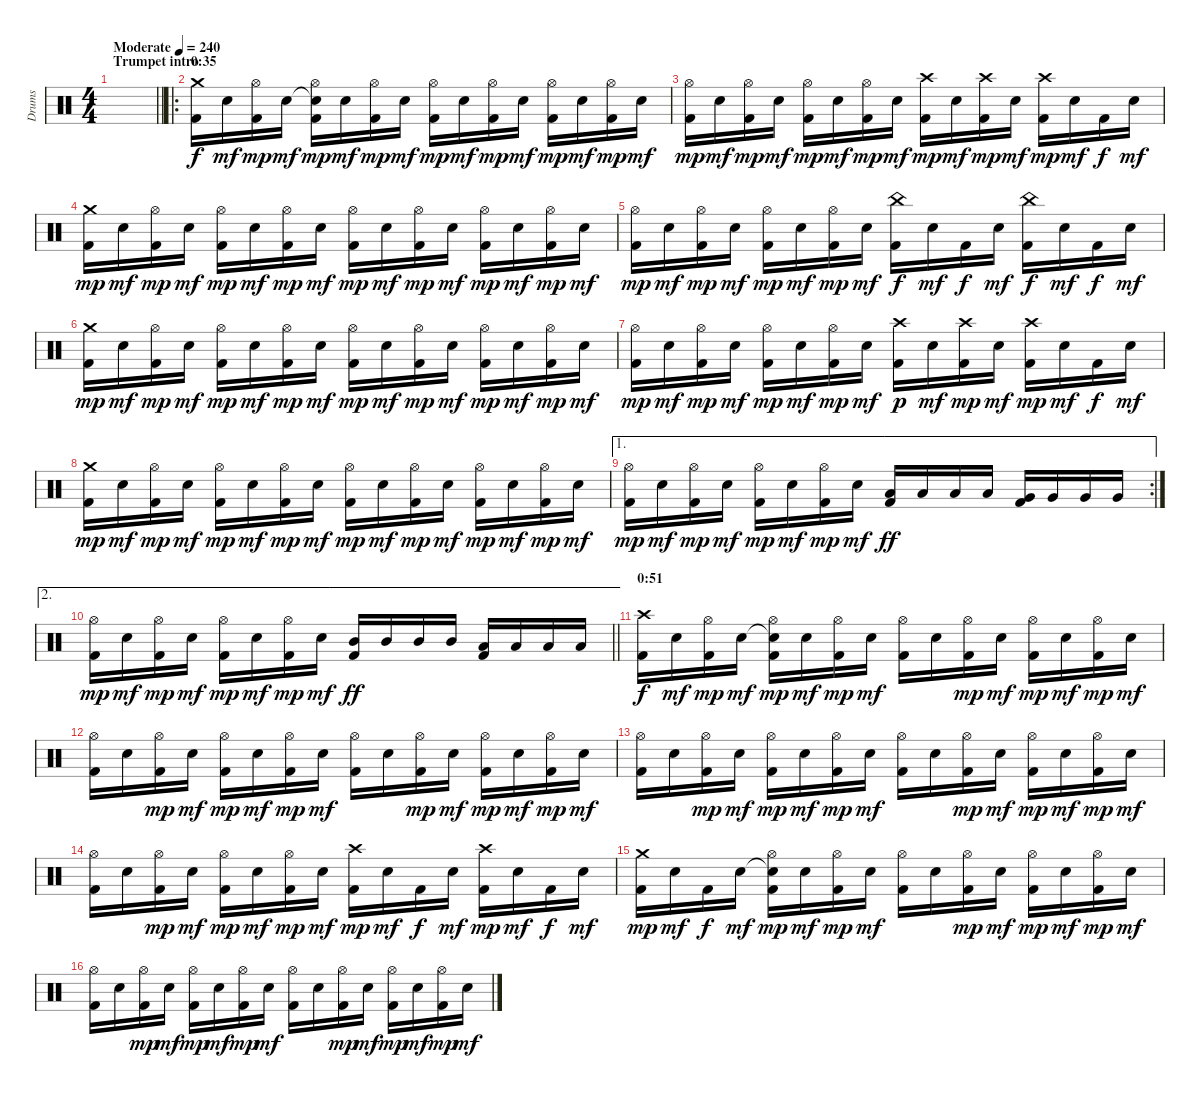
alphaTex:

\track ("Drums" "Drums") {instrument percussion}
\staff {score}
\articulation defaults
\ts (4 4)
\section ("" "Trumpet intro")
\tempo (240 "Moderate")
\clef neutral
\barLineRight lightlight
\ks c
|
\ro
\section ("" "0:35")
("Crash medium (hit)" "Kick (hit) 2").16 "Electric Snare (hit)".16{dy mf} ("Hi-Hat (open)" "Kick (hit) 2").16{dy mp} "Electric Snare (hit)".16{dy mf} ("Snare (hit)"{t} "Hi-Hat (open)" "Kick (hit) 2").16{dy mp} "Electric Snare (hit)".16{dy mf} ("Hi-Hat (open)" "Kick (hit) 2").16{dy mp} "Electric Snare (hit)".16{dy mf} ("Hi-Hat (open)" "Kick (hit) 2").16{dy mp} "Electric Snare (hit)".16{dy mf} ("Hi-Hat (open)" "Kick (hit) 2").16{dy mp} "Electric Snare (hit)".16{dy mf} ("Hi-Hat (open)" "Kick (hit) 2").16{dy mp} "Electric Snare (hit)".16{dy mf} ("Hi-Hat (open)" "Kick (hit) 2").16{dy mp} "Electric Snare (hit)".16{dy mf} |
("Hi-Hat (open)" "Kick (hit) 2").16{dy mp} "Electric Snare (hit)".16{dy mf} ("Hi-Hat (open)" "Kick (hit) 2").16{dy mp} "Electric Snare (hit)".16{dy mf} ("Hi-Hat (open)" "Kick (hit) 2").16{dy mp} "Electric Snare (hit)".16{dy mf} ("Hi-Hat (open)" "Kick (hit) 2").16{dy mp} "Electric Snare (hit)".16{dy mf} ("Crash high (hit)" "Kick (hit) 2").16{dy mp} "Electric Snare (hit)".16{dy mf} ("Crash high (hit)" "Kick (hit) 2").16{dy mp} "Electric Snare (hit)".16{dy mf} ("Crash high (hit)" "Kick (hit) 2").16{dy mp} "Electric Snare (hit)".16{dy mf} "Kick (hit) 2".16{dy f} "Electric Snare (hit)".16{dy mf} |
("Crash medium (hit)" "Kick (hit) 2").16{dy mp} "Electric Snare (hit)".16{dy mf} ("Hi-Hat (open)" "Kick (hit) 2").16{dy mp} "Electric Snare (hit)".16{dy mf} ("Hi-Hat (open)" "Kick (hit) 2").16{dy mp} "Electric Snare (hit)".16{dy mf} ("Hi-Hat (open)" "Kick (hit) 2").16{dy mp} "Electric Snare (hit)".16{dy mf} ("Hi-Hat (open)" "Kick (hit) 2").16{dy mp} "Electric Snare (hit)".16{dy mf} ("Hi-Hat (open)" "Kick (hit) 2").16{dy mp} "Electric Snare (hit)".16{dy mf} ("Hi-Hat (open)" "Kick (hit) 2").16{dy mp} "Electric Snare (hit)".16{dy mf} ("Hi-Hat (open)" "Kick (hit) 2").16{dy mp} "Electric Snare (hit)".16{dy mf} |
("Hi-Hat (open)" "Kick (hit) 2").16{dy mp} "Electric Snare (hit)".16{dy mf} ("Hi-Hat (open)" "Kick (hit) 2").16{dy mp} "Electric Snare (hit)".16{dy mf} ("Hi-Hat (open)" "Kick (hit) 2").16{dy mp} "Electric Snare (hit)".16{dy mf} ("Hi-Hat (open)" "Kick (hit) 2").16{dy mp} "Electric Snare (hit)".16{dy mf} ("China (hit)" "Kick (hit) 2").16{dy f} "Electric Snare (hit)".16{dy mf} "Kick (hit) 2".16{dy f} "Electric Snare (hit)".16{dy mf} ("China (hit)" "Kick (hit) 2").16{dy f} "Electric Snare (hit)".16{dy mf} "Kick (hit) 2".16{dy f} "Electric Snare (hit)".16{dy mf} |
("Crash medium (hit)" "Kick (hit) 2").16{dy mp} "Electric Snare (hit)".16{dy mf} ("Hi-Hat (open)" "Kick (hit) 2").16{dy mp} "Electric Snare (hit)".16{dy mf} ("Hi-Hat (open)" "Kick (hit) 2").16{dy mp} "Electric Snare (hit)".16{dy mf} ("Hi-Hat (open)" "Kick (hit) 2").16{dy mp} "Electric Snare (hit)".16{dy mf} ("Hi-Hat (open)" "Kick (hit) 2").16{dy mp} "Electric Snare (hit)".16{dy mf} ("Hi-Hat (open)" "Kick (hit) 2").16{dy mp} "Electric Snare (hit)".16{dy mf} ("Hi-Hat (open)" "Kick (hit) 2").16{dy mp} "Electric Snare (hit)".16{dy mf} ("Hi-Hat (open)" "Kick (hit) 2").16{dy mp} "Electric Snare (hit)".16{dy mf} |
("Hi-Hat (open)" "Kick (hit) 2").16{dy mp} "Electric Snare (hit)".16{dy mf} ("Hi-Hat (open)" "Kick (hit) 2").16{dy mp} "Electric Snare (hit)".16{dy mf} ("Hi-Hat (open)" "Kick (hit) 2").16{dy mp} "Electric Snare (hit)".16{dy mf} ("Hi-Hat (open)" "Kick (hit) 2").16{dy mp} "Electric Snare (hit)".16{dy mf} ("Crash high (hit)" "Kick (hit) 2").16{dy p} "Electric Snare (hit)".16{dy mf} ("Crash high (hit)" "Kick (hit) 2").16{dy mp} "Electric Snare (hit)".16{dy mf} ("Crash high (hit)" "Kick (hit) 2").16{dy mp} "Electric Snare (hit)".16{dy mf} "Kick (hit) 2".16{dy f} "Electric Snare (hit)".16{dy mf} |
("Crash medium (hit)" "Kick (hit) 2").16{dy mp} "Electric Snare (hit)".16{dy mf} ("Hi-Hat (open)" "Kick (hit) 2").16{dy mp} "Electric Snare (hit)".16{dy mf} ("Hi-Hat (open)" "Kick (hit) 2").16{dy mp} "Electric Snare (hit)".16{dy mf} ("Hi-Hat (open)" "Kick (hit) 2").16{dy mp} "Electric Snare (hit)".16{dy mf} ("Hi-Hat (open)" "Kick (hit) 2").16{dy mp} "Electric Snare (hit)".16{dy mf} ("Hi-Hat (open)" "Kick (hit) 2").16{dy mp} "Electric Snare (hit)".16{dy mf} ("Hi-Hat (open)" "Kick (hit) 2").16{dy mp} "Electric Snare (hit)".16{dy mf} ("Hi-Hat (open)" "Kick (hit) 2").16{dy mp} "Electric Snare (hit)".16{dy mf} |
\ae 1
\rc 2
("Hi-Hat (open)" "Kick (hit) 2").16{dy mp} "Electric Snare (hit)".16{dy mf} ("Hi-Hat (open)" "Kick (hit) 2").16{dy mp} "Electric Snare (hit)".16{dy mf} ("Hi-Hat (open)" "Kick (hit) 2").16{dy mp} "Electric Snare (hit)".16{dy mf} ("Hi-Hat (open)" "Kick (hit) 2").16{dy mp} "Electric Snare (hit)".16{dy mf} ("Low Tom (hit)" "Kick (hit) 2").16{dy ff} "Low Tom (hit)".16 "Low Tom (hit)".16 "Low Tom (hit)".16 ("Very Low Tom (hit)" "Kick (hit) 2").16 "Very Low Tom (hit)".16 "Very Low Tom (hit)".16 "Very Low Tom (hit)".16 |
\ae 2
\barLineRight lightlight
("Hi-Hat (open)" "Kick (hit) 2").16{dy mp} "Electric Snare (hit)".16{dy mf} ("Hi-Hat (open)" "Kick (hit) 2").16{dy mp} "Electric Snare (hit)".16{dy mf} ("Hi-Hat (open)" "Kick (hit) 2").16{dy mp} "Electric Snare (hit)".16{dy mf} ("Hi-Hat (open)" "Kick (hit) 2").16{dy mp} "Electric Snare (hit)".16{dy mf} ("Mid Tom (hit)" "Kick (hit) 2").16{dy ff} "Mid Tom (hit)".16 "Mid Tom (hit)".16 "Mid Tom (hit)".16 ("Low Tom (hit)" "Kick (hit) 2").16 "Low Tom (hit)".16 "Low Tom (hit)".16 "Low Tom (hit)".16 |
\section ("" "0:51")
("Crash high (hit)" "Kick (hit) 2").16{dy f} "Electric Snare (hit)".16{dy mf} ("Hi-Hat (open)" "Kick (hit) 2").16{dy mp} "Electric Snare (hit)".16{dy mf} ("Snare (hit)"{t} "Hi-Hat (open)" "Kick (hit) 2").16{dy mp} "Electric Snare (hit)".16{dy mf} ("Hi-Hat (open)" "Kick (hit) 2").16{dy mp} "Electric Snare (hit)".16{dy mf} ("Hi-Hat (open)" "Kick (hit) 2").16 "Electric Snare (hit)".16 ("Hi-Hat (open)" "Kick (hit) 2").16{dy mp} "Electric Snare (hit)".16{dy mf} ("Hi-Hat (open)" "Kick (hit) 2").16{dy mp} "Electric Snare (hit)".16{dy mf} ("Hi-Hat (open)" "Kick (hit) 2").16{dy mp} "Electric Snare (hit)".16{dy mf} |
("Hi-Hat (open)" "Kick (hit) 2").16 "Electric Snare (hit)".16 ("Hi-Hat (open)" "Kick (hit) 2").16{dy mp} "Electric Snare (hit)".16{dy mf} ("Hi-Hat (open)" "Kick (hit) 2").16{dy mp} "Electric Snare (hit)".16{dy mf} ("Hi-Hat (open)" "Kick (hit) 2").16{dy mp} "Electric Snare (hit)".16{dy mf} ("Hi-Hat (open)" "Kick (hit) 2").16 "Electric Snare (hit)".16 ("Hi-Hat (open)" "Kick (hit) 2").16{dy mp} "Electric Snare (hit)".16{dy mf} ("Hi-Hat (open)" "Kick (hit) 2").16{dy mp} "Electric Snare (hit)".16{dy mf} ("Hi-Hat (open)" "Kick (hit) 2").16{dy mp} "Electric Snare (hit)".16{dy mf} |
("Hi-Hat (open)" "Kick (hit) 2").16 "Electric Snare (hit)".16 ("Hi-Hat (open)" "Kick (hit) 2").16{dy mp} "Electric Snare (hit)".16{dy mf} ("Hi-Hat (open)" "Kick (hit) 2").16{dy mp} "Electric Snare (hit)".16{dy mf} ("Hi-Hat (open)" "Kick (hit) 2").16{dy mp} "Electric Snare (hit)".16{dy mf} ("Hi-Hat (open)" "Kick (hit) 2").16 "Electric Snare (hit)".16 ("Hi-Hat (open)" "Kick (hit) 2").16{dy mp} "Electric Snare (hit)".16{dy mf} ("Hi-Hat (open)" "Kick (hit) 2").16{dy mp} "Electric Snare (hit)".16{dy mf} ("Hi-Hat (open)" "Kick (hit) 2").16{dy mp} "Electric Snare (hit)".16{dy mf} |
("Hi-Hat (open)" "Kick (hit) 2").16 "Electric Snare (hit)".16 ("Hi-Hat (open)" "Kick (hit) 2").16{dy mp} "Electric Snare (hit)".16{dy mf} ("Hi-Hat (open)" "Kick (hit) 2").16{dy mp} "Electric Snare (hit)".16{dy mf} ("Hi-Hat (open)" "Kick (hit) 2").16{dy mp} "Electric Snare (hit)".16{dy mf} ("Crash high (hit)" "Kick (hit) 2").16{dy mp} "Electric Snare (hit)".16{dy mf} "Kick (hit) 2".16{dy f} "Electric Snare (hit)".16{dy mf} ("Crash high (hit)" "Kick (hit) 2").16{dy mp} "Electric Snare (hit)".16{dy mf} "Kick (hit) 2".16{dy f} "Electric Snare (hit)".16{dy mf} |
("Crash medium (hit)" "Kick (hit) 2").16{dy mp} "Electric Snare (hit)".16{dy mf} "Kick (hit) 2".16{dy f} "Electric Snare (hit)".16{dy mf} ("Snare (hit)"{t} "Hi-Hat (open)" "Kick (hit) 2").16{dy mp} "Electric Snare (hit)".16{dy mf} ("Hi-Hat (open)" "Kick (hit) 2").16{dy mp} "Electric Snare (hit)".16{dy mf} ("Hi-Hat (open)" "Kick (hit) 2").16 "Electric Snare (hit)".16 ("Hi-Hat (open)" "Kick (hit) 2").16{dy mp} "Electric Snare (hit)".16{dy mf} ("Hi-Hat (open)" "Kick (hit) 2").16{dy mp} "Electric Snare (hit)".16{dy mf} ("Hi-Hat (open)" "Kick (hit) 2").16{dy mp} "Electric Snare (hit)".16{dy mf} |
("Hi-Hat (open)" "Kick (hit) 2").16 "Electric Snare (hit)".16 ("Hi-Hat (open)" "Kick (hit) 2").16{dy mp} "Electric Snare (hit)".16{dy mf} ("Hi-Hat (open)" "Kick (hit) 2").16{dy mp} "Electric Snare (hit)".16{dy mf} ("Hi-Hat (open)" "Kick (hit) 2").16{dy mp} "Electric Snare (hit)".16{dy mf} ("Hi-Hat (open)" "Kick (hit) 2").16 "Electric Snare (hit)".16 ("Hi-Hat (open)" "Kick (hit) 2").16{dy mp} "Electric Snare (hit)".16{dy mf} ("Hi-Hat (open)" "Kick (hit) 2").16{dy mp} "Electric Snare (hit)".16{dy mf} ("Hi-Hat (open)" "Kick (hit) 2").16{dy mp} "Electric Snare (hit)".16{dy mf}
